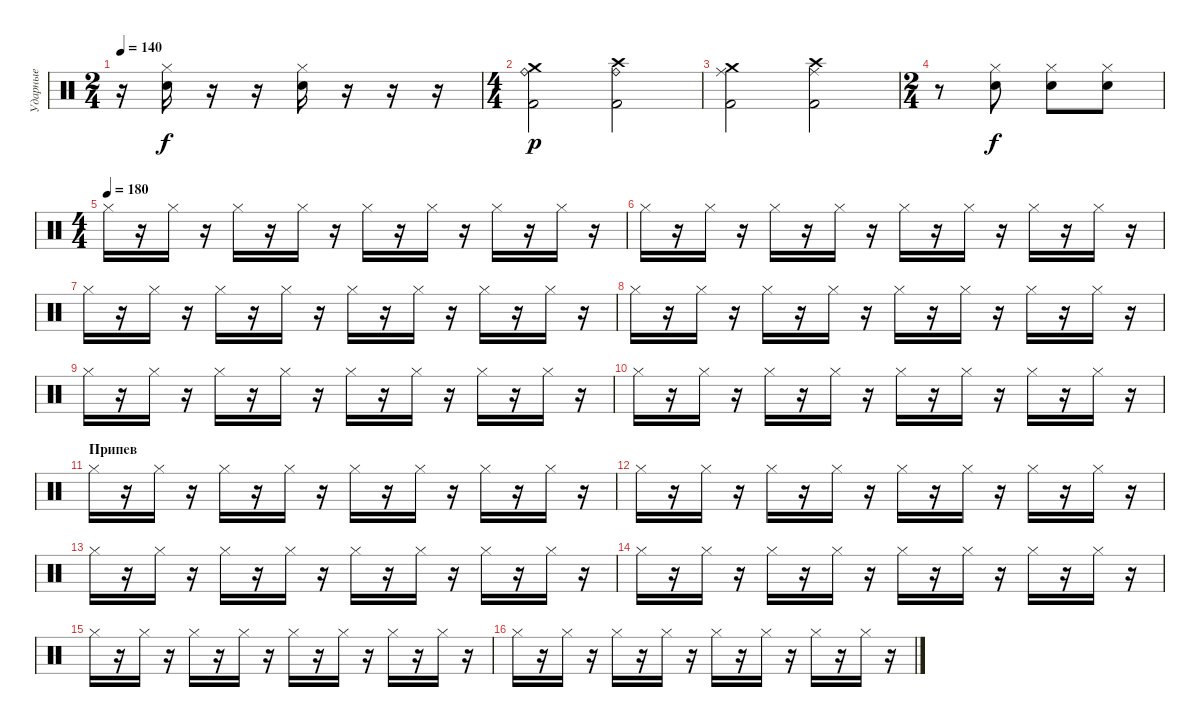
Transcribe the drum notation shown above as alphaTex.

\track ("Ударные" "Ударные") {instrument percussion}
\staff {score}
\articulation defaults
\ts (2 4)
\tempo 140
\clef neutral
\ks c
r.16{dy f} ("Snare (hit) 2" "Hi-Hat (closed)").16 r.16 r.16 ("Snare (hit) 2" "Hi-Hat (closed)").16 r.16 r.16 r.16 |
\ts (4 4)
("Crash medium (hit)" "Ride (bell)" "Kick (hit) 2").2{dy p} ("Crash high (hit)" "Ride (bell)" "Kick (hit) 2").2 |
("Crash medium (hit)" "Ride (middle)" "Kick (hit) 2").2 ("Crash high (hit)" "Ride (middle)" "Kick (hit) 2").2 |
\ts (2 4)
r.8 ("Snare (hit) 2" "Hi-Hat (closed)").8{dy f} ("Snare (hit) 2" "Hi-Hat (closed)").8 ("Snare (hit) 2" "Hi-Hat (closed)").8 |
\ts (4 4)
\tempo (180)
"Hi-Hat (closed)".16 r.16 "Hi-Hat (closed)".16 r.16 "Hi-Hat (closed)".16 r.16 "Hi-Hat (closed)".16 r.16 "Hi-Hat (closed)".16 r.16 "Hi-Hat (closed)".16 r.16 "Hi-Hat (closed)".16 r.16 "Hi-Hat (closed)".16 r.16 |
"Hi-Hat (closed)".16 r.16 "Hi-Hat (closed)".16 r.16 "Hi-Hat (closed)".16 r.16 "Hi-Hat (closed)".16 r.16 "Hi-Hat (closed)".16 r.16 "Hi-Hat (closed)".16 r.16 "Hi-Hat (closed)".16 r.16 "Hi-Hat (closed)".16 r.16 |
"Hi-Hat (closed)".16 r.16 "Hi-Hat (closed)".16 r.16 "Hi-Hat (closed)".16 r.16 "Hi-Hat (closed)".16 r.16 "Hi-Hat (closed)".16 r.16 "Hi-Hat (closed)".16 r.16 "Hi-Hat (closed)".16 r.16 "Hi-Hat (closed)".16 r.16 |
"Hi-Hat (closed)".16 r.16 "Hi-Hat (closed)".16 r.16 "Hi-Hat (closed)".16 r.16 "Hi-Hat (closed)".16 r.16 "Hi-Hat (closed)".16 r.16 "Hi-Hat (closed)".16 r.16 "Hi-Hat (closed)".16 r.16 "Hi-Hat (closed)".16 r.16 |
"Hi-Hat (closed)".16 r.16 "Hi-Hat (closed)".16 r.16 "Hi-Hat (closed)".16 r.16 "Hi-Hat (closed)".16 r.16 "Hi-Hat (closed)".16 r.16 "Hi-Hat (closed)".16 r.16 "Hi-Hat (closed)".16 r.16 "Hi-Hat (closed)".16 r.16 |
"Hi-Hat (closed)".16 r.16 "Hi-Hat (closed)".16 r.16 "Hi-Hat (closed)".16 r.16 "Hi-Hat (closed)".16 r.16 "Hi-Hat (closed)".16 r.16 "Hi-Hat (closed)".16 r.16 "Hi-Hat (closed)".16 r.16 "Hi-Hat (closed)".16 r.16 |
\section ("" "Припев")
"Hi-Hat (closed)".16 r.16 "Hi-Hat (closed)".16 r.16 "Hi-Hat (closed)".16 r.16 "Hi-Hat (closed)".16 r.16 "Hi-Hat (closed)".16 r.16 "Hi-Hat (closed)".16 r.16 "Hi-Hat (closed)".16 r.16 "Hi-Hat (closed)".16 r.16 |
"Hi-Hat (closed)".16 r.16 "Hi-Hat (closed)".16 r.16 "Hi-Hat (closed)".16 r.16 "Hi-Hat (closed)".16 r.16 "Hi-Hat (closed)".16 r.16 "Hi-Hat (closed)".16 r.16 "Hi-Hat (closed)".16 r.16 "Hi-Hat (closed)".16 r.16 |
"Hi-Hat (closed)".16 r.16 "Hi-Hat (closed)".16 r.16 "Hi-Hat (closed)".16 r.16 "Hi-Hat (closed)".16 r.16 "Hi-Hat (closed)".16 r.16 "Hi-Hat (closed)".16 r.16 "Hi-Hat (closed)".16 r.16 "Hi-Hat (closed)".16 r.16 |
"Hi-Hat (closed)".16 r.16 "Hi-Hat (closed)".16 r.16 "Hi-Hat (closed)".16 r.16 "Hi-Hat (closed)".16 r.16 "Hi-Hat (closed)".16 r.16 "Hi-Hat (closed)".16 r.16 "Hi-Hat (closed)".16 r.16 "Hi-Hat (closed)".16 r.16 |
"Hi-Hat (closed)".16 r.16 "Hi-Hat (closed)".16 r.16 "Hi-Hat (closed)".16 r.16 "Hi-Hat (closed)".16 r.16 "Hi-Hat (closed)".16 r.16 "Hi-Hat (closed)".16 r.16 "Hi-Hat (closed)".16 r.16 "Hi-Hat (closed)".16 r.16 |
"Hi-Hat (closed)".16 r.16 "Hi-Hat (closed)".16 r.16 "Hi-Hat (closed)".16 r.16 "Hi-Hat (closed)".16 r.16 "Hi-Hat (closed)".16 r.16 "Hi-Hat (closed)".16 r.16 "Hi-Hat (closed)".16 r.16 "Hi-Hat (closed)".16 r.16
